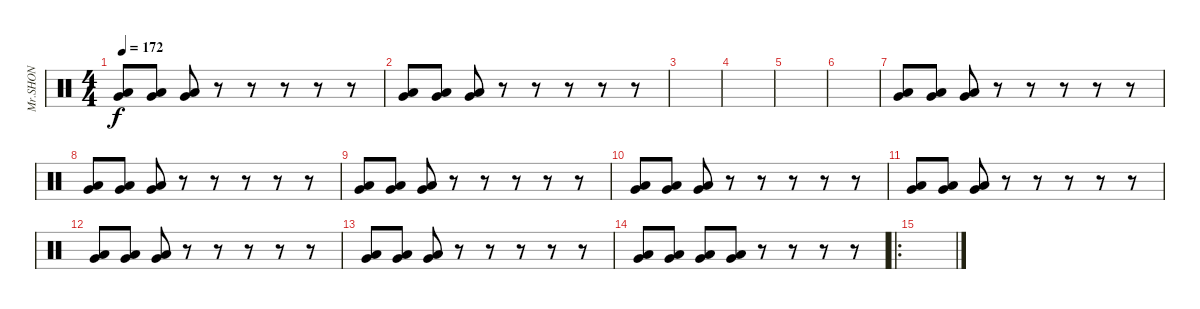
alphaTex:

\track ("Mr.SHON" "Mr.SHON") {instrument percussion}
\staff {score}
\articulation defaults
\ts (4 4)
\tempo 172
\clef neutral
\ks c
("Very Low Tom (hit)" "Low Floor Tom (hit)").8{dy f} ("Very Low Tom (hit)" "Low Floor Tom (hit)").8 ("Very Low Tom (hit)" "Low Floor Tom (hit)").8 r.8 r.8 r.8 r.8 r.8 |
("Very Low Tom (hit)" "Low Floor Tom (hit)").8 ("Very Low Tom (hit)" "Low Floor Tom (hit)").8 ("Very Low Tom (hit)" "Low Floor Tom (hit)").8 r.8 r.8 r.8 r.8 r.8 |
|
|
|
|
("Very Low Tom (hit)" "Low Floor Tom (hit)").8 ("Very Low Tom (hit)" "Low Floor Tom (hit)").8 ("Very Low Tom (hit)" "Low Floor Tom (hit)").8 r.8 r.8 r.8 r.8 r.8 |
("Very Low Tom (hit)" "Low Floor Tom (hit)").8 ("Very Low Tom (hit)" "Low Floor Tom (hit)").8 ("Very Low Tom (hit)" "Low Floor Tom (hit)").8 r.8 r.8 r.8 r.8 r.8 |
("Very Low Tom (hit)" "Low Floor Tom (hit)").8 ("Very Low Tom (hit)" "Low Floor Tom (hit)").8 ("Very Low Tom (hit)" "Low Floor Tom (hit)").8 r.8 r.8 r.8 r.8 r.8 |
("Very Low Tom (hit)" "Low Floor Tom (hit)").8 ("Very Low Tom (hit)" "Low Floor Tom (hit)").8 ("Very Low Tom (hit)" "Low Floor Tom (hit)").8 r.8 r.8 r.8 r.8 r.8 |
("Very Low Tom (hit)" "Low Floor Tom (hit)").8 ("Very Low Tom (hit)" "Low Floor Tom (hit)").8 ("Very Low Tom (hit)" "Low Floor Tom (hit)").8 r.8 r.8 r.8 r.8 r.8 |
("Very Low Tom (hit)" "Low Floor Tom (hit)").8 ("Very Low Tom (hit)" "Low Floor Tom (hit)").8 ("Very Low Tom (hit)" "Low Floor Tom (hit)").8 r.8 r.8 r.8 r.8 r.8 |
("Very Low Tom (hit)" "Low Floor Tom (hit)").8 ("Very Low Tom (hit)" "Low Floor Tom (hit)").8 ("Very Low Tom (hit)" "Low Floor Tom (hit)").8 r.8 r.8 r.8 r.8 r.8 |
("Very Low Tom (hit)" "Low Floor Tom (hit)").8 ("Very Low Tom (hit)" "Low Floor Tom (hit)").8 ("Very Low Tom (hit)" "Low Floor Tom (hit)").8 ("Very Low Tom (hit)" "Low Floor Tom (hit)").8 r.8 r.8 r.8 r.8 |
\ro
